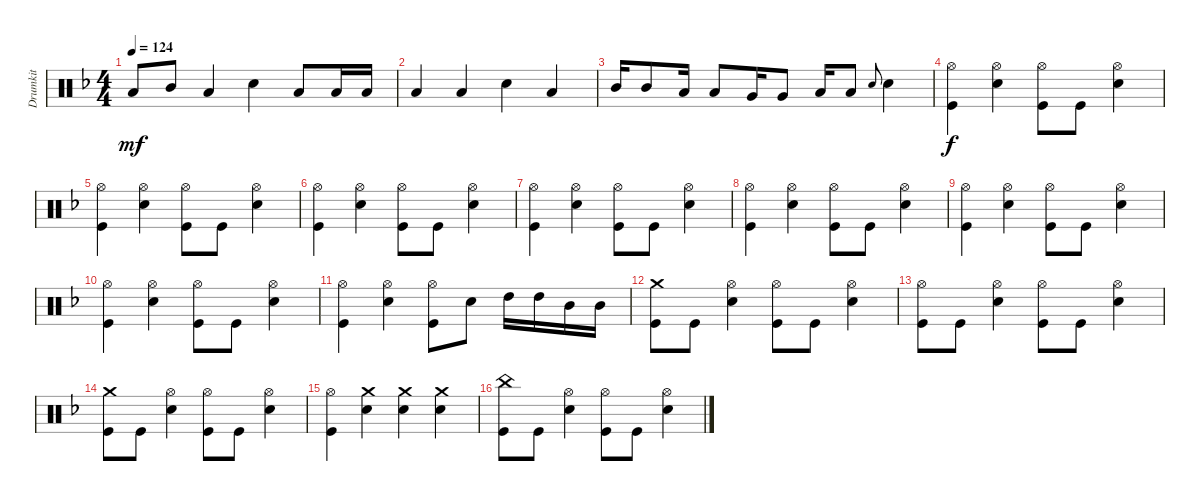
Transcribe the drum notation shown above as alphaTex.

\track ("Drumkit" "Drumkit") {instrument percussion}
\staff {score}
\articulation defaults
\ts (4 4)
\tempo 124
\clef neutral
\ks dminor "Low Tom (hit)".8{dy mf} "Mid Tom (hit)".8 "Low Tom (hit)".4 "Snare (hit) 2".4 "Low Tom (hit)".8 "Low Tom (hit)".16 "Low Tom (hit)".16
|
"Low Tom (hit)".4 "Low Tom (hit)".4 "Snare (hit) 2".4 "Low Tom (hit)".4 |
"Mid Tom (hit)".16 "Mid Tom (hit)".8 "Low Tom (hit)".16 "Low Tom (hit)".8 "Very Low Tom (hit)".16 "Very Low Tom (hit)".8 "Low Floor Tom (hit)".16 "Low Floor Tom (hit)".8 "Snare (hit)".8{gr onbeat} "Snare (hit) 2".4 |
("Hi-Hat (open)" "Kick (hit)").4{dy f} ("Hi-Hat (open)" "Snare (hit) 2").4 ("Hi-Hat (open)" "Kick (hit)").8 "Kick (hit)".8 ("Snare (hit) 2" "Hi-Hat (open)").4 |
("Hi-Hat (open)" "Kick (hit)").4 ("Hi-Hat (open)" "Snare (hit) 2").4 ("Hi-Hat (open)" "Kick (hit)").8 "Kick (hit)".8 ("Snare (hit) 2" "Hi-Hat (open)").4 |
("Hi-Hat (open)" "Kick (hit)").4 ("Hi-Hat (open)" "Snare (hit) 2").4 ("Hi-Hat (open)" "Kick (hit)").8 "Kick (hit)".8 ("Snare (hit) 2" "Hi-Hat (open)").4 |
("Hi-Hat (open)" "Kick (hit)").4 ("Hi-Hat (open)" "Snare (hit) 2").4 ("Hi-Hat (open)" "Kick (hit)").8 "Kick (hit)".8 ("Snare (hit) 2" "Hi-Hat (open)").4 |
("Hi-Hat (open)" "Kick (hit)").4 ("Hi-Hat (open)" "Snare (hit) 2").4 ("Hi-Hat (open)" "Kick (hit)").8 "Kick (hit)".8 ("Snare (hit) 2" "Hi-Hat (open)").4 |
("Hi-Hat (open)" "Kick (hit)").4 ("Hi-Hat (open)" "Snare (hit) 2").4 ("Hi-Hat (open)" "Kick (hit)").8 "Kick (hit)".8 ("Snare (hit) 2" "Hi-Hat (open)").4 |
("Hi-Hat (open)" "Kick (hit)").4 ("Hi-Hat (open)" "Snare (hit) 2").4 ("Hi-Hat (open)" "Kick (hit)").8 "Kick (hit)".8 ("Snare (hit) 2" "Hi-Hat (open)").4 |
("Hi-Hat (open)" "Kick (hit)").4 ("Hi-Hat (open)" "Snare (hit) 2").4 ("Hi-Hat (open)" "Kick (hit)").8 "Snare (hit) 2".8 "High Tom (hit)".16 "High Tom (hit)".16 "Mid Tom (hit)".16 "Mid Tom (hit)".16 |
("Crash medium (hit)" "Kick (hit)").8 "Kick (hit)".8 ("Snare (hit) 2" "Hi-Hat (open)").4 ("Kick (hit)" "Hi-Hat (open)").8 "Kick (hit)".8 ("Hi-Hat (open)" "Snare (hit) 2").4 |
("Kick (hit)" "Hi-Hat (open)").8 "Kick (hit)".8 ("Snare (hit) 2" "Hi-Hat (open)").4 ("Kick (hit)" "Hi-Hat (open)").8 "Kick (hit)".8 ("Hi-Hat (open)" "Snare (hit) 2").4 |
("Crash medium (hit)" "Kick (hit)").8 "Kick (hit)".8 ("Snare (hit) 2" "Hi-Hat (open)").4 ("Kick (hit)" "Hi-Hat (open)").8 "Kick (hit)".8 ("Hi-Hat (open)" "Snare (hit) 2").4 |
("Kick (hit)" "Hi-Hat (open)").4 ("Snare (hit) 2" "Crash medium (hit)").4 ("Crash medium (hit)" "Snare (hit) 2").4 ("Crash medium (hit)" "Snare (hit) 2").4 |
("Kick (hit)" "China (hit)").8 "Kick (hit)".8 ("Snare (hit) 2" "Hi-Hat (open)").4 ("Kick (hit)" "Hi-Hat (open)").8 "Kick (hit)".8 ("Hi-Hat (open)" "Snare (hit) 2").4
